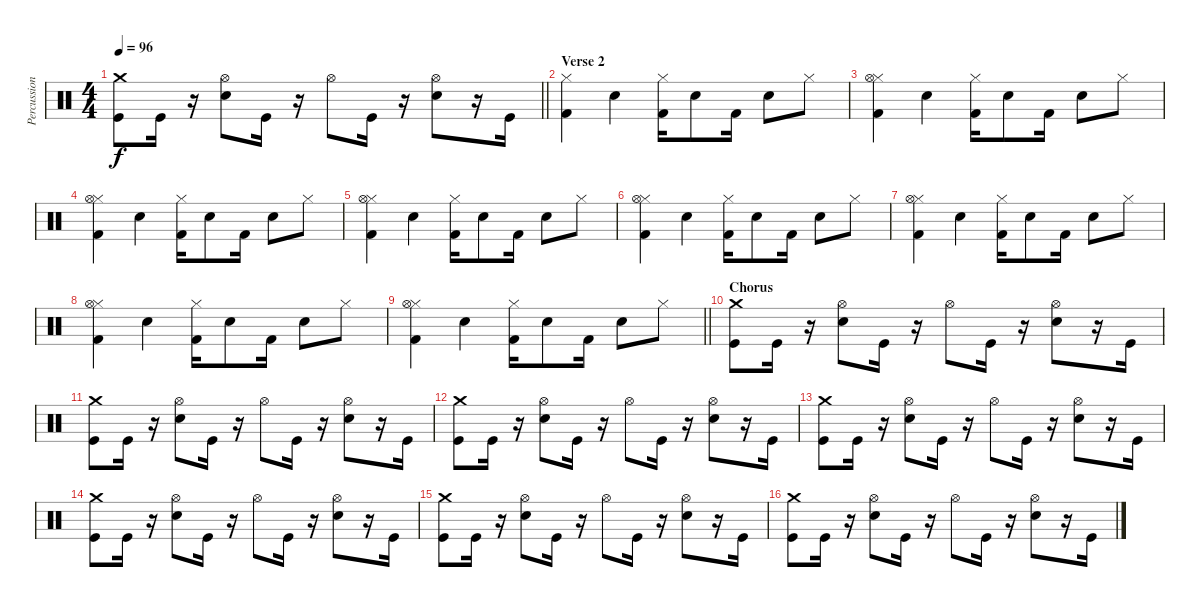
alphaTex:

\track ("Percussion" "Percussion") {instrument percussion}
\staff {score}
\articulation defaults
\ts (4 4)
\tempo 96
\clef neutral
\barLineRight lightlight
\ks c
("Crash medium (hit)" "Kick (hit)").8{dy f} "Kick (hit)".16 r.16 ("Hi-Hat (open)" "Electric Snare (hit)").8 "Kick (hit)".16 r.16 "Hi-Hat (open)".8 "Kick (hit)".16 r.16 ("Hi-Hat (open)" "Electric Snare (hit)").8 r.16 "Kick (hit)".16 |
\section ("" "Verse 2")
("Hi-Hat (closed)" "Kick (hit) 2").4 "Electric Snare (hit)".4 ("Hi-Hat (closed)" "Kick (hit) 2").16 "Electric Snare (hit)".8 "Kick (hit) 2".16 "Electric Snare (hit)".8 "Hi-Hat (closed)".8 |
("Hi-Hat (closed)" "Hi-Hat (open)" "Kick (hit) 2").4 "Electric Snare (hit)".4 ("Hi-Hat (closed)" "Kick (hit) 2").16 "Electric Snare (hit)".8 "Kick (hit) 2".16 "Electric Snare (hit)".8 "Hi-Hat (closed)".8 |
("Hi-Hat (closed)" "Hi-Hat (open)" "Kick (hit) 2").4 "Electric Snare (hit)".4 ("Hi-Hat (closed)" "Kick (hit) 2").16 "Electric Snare (hit)".8 "Kick (hit) 2".16 "Electric Snare (hit)".8 "Hi-Hat (closed)".8 |
("Hi-Hat (closed)" "Hi-Hat (open)" "Kick (hit) 2").4 "Electric Snare (hit)".4 ("Hi-Hat (closed)" "Kick (hit) 2").16 "Electric Snare (hit)".8 "Kick (hit) 2".16 "Electric Snare (hit)".8 "Hi-Hat (closed)".8 |
("Hi-Hat (closed)" "Hi-Hat (open)" "Kick (hit) 2").4 "Electric Snare (hit)".4 ("Hi-Hat (closed)" "Kick (hit) 2").16 "Electric Snare (hit)".8 "Kick (hit) 2".16 "Electric Snare (hit)".8 "Hi-Hat (closed)".8 |
("Hi-Hat (closed)" "Hi-Hat (open)" "Kick (hit) 2").4 "Electric Snare (hit)".4 ("Hi-Hat (closed)" "Kick (hit) 2").16 "Electric Snare (hit)".8 "Kick (hit) 2".16 "Electric Snare (hit)".8 "Hi-Hat (closed)".8 |
("Hi-Hat (closed)" "Hi-Hat (open)" "Kick (hit) 2").4 "Electric Snare (hit)".4 ("Hi-Hat (closed)" "Kick (hit) 2").16 "Electric Snare (hit)".8 "Kick (hit) 2".16 "Electric Snare (hit)".8 "Hi-Hat (closed)".8 |
\barLineRight lightlight
("Hi-Hat (closed)" "Hi-Hat (open)" "Kick (hit) 2").4 "Electric Snare (hit)".4 ("Hi-Hat (closed)" "Kick (hit) 2").16 "Electric Snare (hit)".8 "Kick (hit) 2".16 "Electric Snare (hit)".8 "Hi-Hat (closed)".8 |
\section ("" "Chorus")
("Crash medium (hit)" "Kick (hit)").8 "Kick (hit)".16 r.16 ("Hi-Hat (open)" "Electric Snare (hit)").8 "Kick (hit)".16 r.16 "Hi-Hat (open)".8 "Kick (hit)".16 r.16 ("Hi-Hat (open)" "Electric Snare (hit)").8 r.16 "Kick (hit)".16 |
("Crash medium (hit)" "Kick (hit)").8 "Kick (hit)".16 r.16 ("Hi-Hat (open)" "Electric Snare (hit)").8 "Kick (hit)".16 r.16 "Hi-Hat (open)".8 "Kick (hit)".16 r.16 ("Hi-Hat (open)" "Electric Snare (hit)").8 r.16 "Kick (hit)".16 |
("Crash medium (hit)" "Kick (hit)").8 "Kick (hit)".16 r.16 ("Hi-Hat (open)" "Electric Snare (hit)").8 "Kick (hit)".16 r.16 "Hi-Hat (open)".8 "Kick (hit)".16 r.16 ("Hi-Hat (open)" "Electric Snare (hit)").8 r.16 "Kick (hit)".16 |
("Crash medium (hit)" "Kick (hit)").8 "Kick (hit)".16 r.16 ("Hi-Hat (open)" "Electric Snare (hit)").8 "Kick (hit)".16 r.16 "Hi-Hat (open)".8 "Kick (hit)".16 r.16 ("Hi-Hat (open)" "Electric Snare (hit)").8 r.16 "Kick (hit)".16 |
("Crash medium (hit)" "Kick (hit)").8 "Kick (hit)".16 r.16 ("Hi-Hat (open)" "Electric Snare (hit)").8 "Kick (hit)".16 r.16 "Hi-Hat (open)".8 "Kick (hit)".16 r.16 ("Hi-Hat (open)" "Electric Snare (hit)").8 r.16 "Kick (hit)".16 |
("Crash medium (hit)" "Kick (hit)").8 "Kick (hit)".16 r.16 ("Hi-Hat (open)" "Electric Snare (hit)").8 "Kick (hit)".16 r.16 "Hi-Hat (open)".8 "Kick (hit)".16 r.16 ("Hi-Hat (open)" "Electric Snare (hit)").8 r.16 "Kick (hit)".16 |
("Crash medium (hit)" "Kick (hit)").8 "Kick (hit)".16 r.16 ("Hi-Hat (open)" "Electric Snare (hit)").8 "Kick (hit)".16 r.16 "Hi-Hat (open)".8 "Kick (hit)".16 r.16 ("Hi-Hat (open)" "Electric Snare (hit)").8 r.16 "Kick (hit)".16
